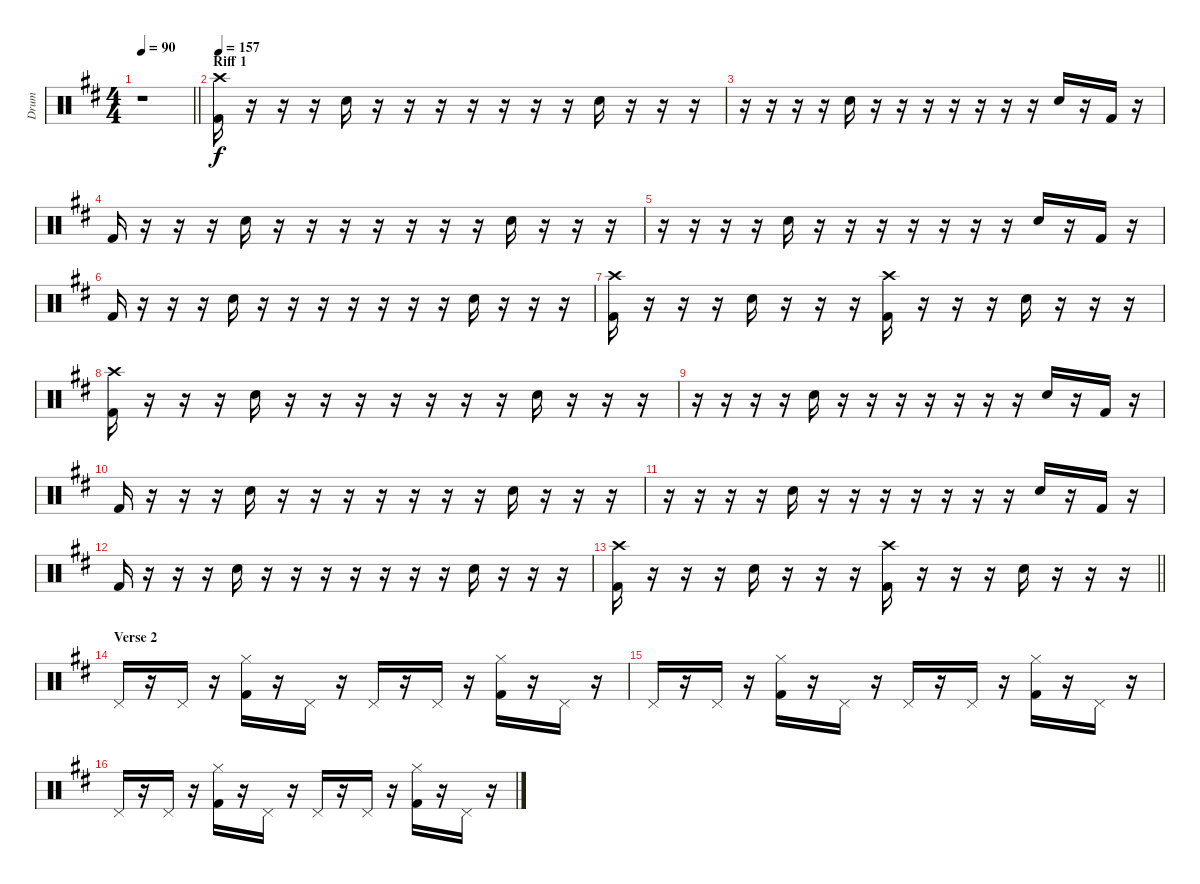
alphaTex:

\track ("Drum" "Drum") {instrument percussion}
\staff {score}
\articulation defaults
\ts (4 4)
\tempo 90
\clef neutral
\barLineRight lightlight
\ks d
r.1{dy f} |
\section ("" "Riff 1")
\tempo 157
("Kick (hit) 2" "Crash high (hit)").16 r.16 r.16 r.16 "Electric Snare (hit)".16 r.16 r.16 r.16 r.16 r.16 r.16 r.16 "Electric Snare (hit)".16 r.16 r.16 r.16 |
r.16 r.16 r.16 r.16 "Electric Snare (hit)".16 r.16 r.16 r.16 r.16 r.16 r.16 r.16 "Electric Snare (hit)".16 r.16 "Kick (hit) 2".16 r.16 |
"Kick (hit) 2".16 r.16 r.16 r.16 "Electric Snare (hit)".16 r.16 r.16 r.16 r.16 r.16 r.16 r.16 "Electric Snare (hit)".16 r.16 r.16 r.16 |
r.16 r.16 r.16 r.16 "Electric Snare (hit)".16 r.16 r.16 r.16 r.16 r.16 r.16 r.16 "Electric Snare (hit)".16 r.16 "Kick (hit) 2".16 r.16 |
"Kick (hit) 2".16 r.16 r.16 r.16 "Electric Snare (hit)".16 r.16 r.16 r.16 r.16 r.16 r.16 r.16 "Electric Snare (hit)".16 r.16 r.16 r.16 |
("Kick (hit) 2" "Crash high (hit)").16 r.16 r.16 r.16 "Electric Snare (hit)".16 r.16 r.16 r.16 ("Kick (hit) 2" "Crash high (hit)").16 r.16 r.16 r.16 "Electric Snare (hit)".16 r.16 r.16 r.16 |
("Kick (hit) 2" "Crash high (hit)").16 r.16 r.16 r.16 "Electric Snare (hit)".16 r.16 r.16 r.16 r.16 r.16 r.16 r.16 "Electric Snare (hit)".16 r.16 r.16 r.16 |
r.16 r.16 r.16 r.16 "Electric Snare (hit)".16 r.16 r.16 r.16 r.16 r.16 r.16 r.16 "Electric Snare (hit)".16 r.16 "Kick (hit) 2".16 r.16 |
"Kick (hit) 2".16 r.16 r.16 r.16 "Electric Snare (hit)".16 r.16 r.16 r.16 r.16 r.16 r.16 r.16 "Electric Snare (hit)".16 r.16 r.16 r.16 |
r.16 r.16 r.16 r.16 "Electric Snare (hit)".16 r.16 r.16 r.16 r.16 r.16 r.16 r.16 "Electric Snare (hit)".16 r.16 "Kick (hit) 2".16 r.16 |
"Kick (hit) 2".16 r.16 r.16 r.16 "Electric Snare (hit)".16 r.16 r.16 r.16 r.16 r.16 r.16 r.16 "Electric Snare (hit)".16 r.16 r.16 r.16 |
\barLineRight lightlight
("Kick (hit) 2" "Crash high (hit)").16 r.16 r.16 r.16 "Electric Snare (hit)".16 r.16 r.16 r.16 ("Kick (hit) 2" "Crash high (hit)").16 r.16 r.16 r.16 "Electric Snare (hit)".16 r.16 r.16 r.16 |
\section ("" "Verse 2")
"Pedal Hi-Hat (hit)".16 r.16 "Pedal Hi-Hat (hit)".16 r.16 ("Hi-Hat (closed)" "Kick (hit) 2").16 r.16 "Pedal Hi-Hat (hit)".16 r.16 "Pedal Hi-Hat (hit)".16 r.16 "Pedal Hi-Hat (hit)".16 r.16 ("Hi-Hat (closed)" "Kick (hit) 2").16 r.16 "Pedal Hi-Hat (hit)".16 r.16 |
"Pedal Hi-Hat (hit)".16 r.16 "Pedal Hi-Hat (hit)".16 r.16 ("Hi-Hat (closed)" "Kick (hit) 2").16 r.16 "Pedal Hi-Hat (hit)".16 r.16 "Pedal Hi-Hat (hit)".16 r.16 "Pedal Hi-Hat (hit)".16 r.16 ("Hi-Hat (closed)" "Kick (hit) 2").16 r.16 "Pedal Hi-Hat (hit)".16 r.16 |
"Pedal Hi-Hat (hit)".16 r.16 "Pedal Hi-Hat (hit)".16 r.16 ("Hi-Hat (closed)" "Kick (hit) 2").16 r.16 "Pedal Hi-Hat (hit)".16 r.16 "Pedal Hi-Hat (hit)".16 r.16 "Pedal Hi-Hat (hit)".16 r.16 ("Hi-Hat (closed)" "Kick (hit) 2").16 r.16 "Pedal Hi-Hat (hit)".16 r.16
